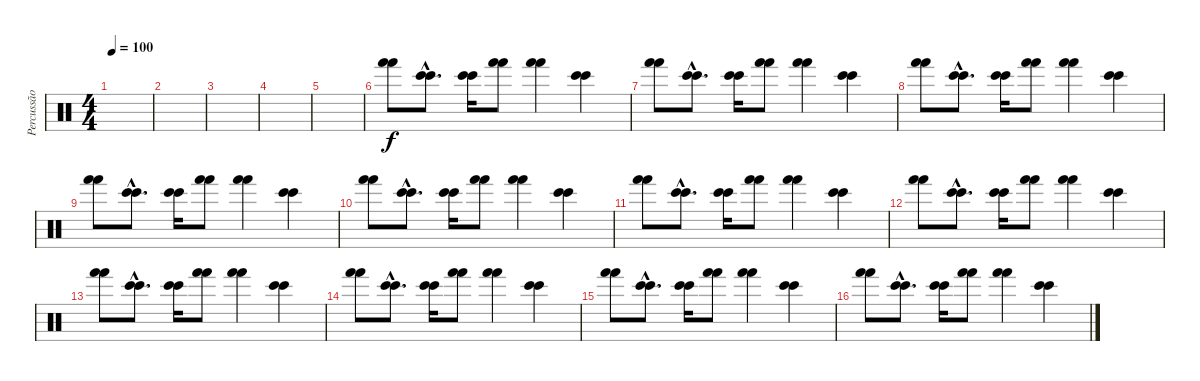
\track ("Percussão" "Percussão") {instrument percussion}
\staff {score}
\articulation defaults
\ts (4 4)
\tempo 100
\clef neutral
\ks c
|
|
|
|
|
("Hand (hit)" "Hand (hit)").8 ("Bongo High (hit)"{hac} "Bongo High (hit)"{hac}).8{d} ("Bongo High (hit)" "Bongo High (hit)").16 ("Hand (hit)" "Hand (hit)").8 ("Hand (hit)" "Hand (hit)").4 ("Bongo High (hit)" "Bongo High (hit)").4 |
("Hand (hit)" "Hand (hit)").8 ("Bongo High (hit)"{hac} "Bongo High (hit)"{hac}).8{d} ("Bongo High (hit)" "Bongo High (hit)").16 ("Hand (hit)" "Hand (hit)").8 ("Hand (hit)" "Hand (hit)").4 ("Bongo High (hit)" "Bongo High (hit)").4 |
("Hand (hit)" "Hand (hit)").8 ("Bongo High (hit)"{hac} "Bongo High (hit)"{hac}).8{d} ("Bongo High (hit)" "Bongo High (hit)").16 ("Hand (hit)" "Hand (hit)").8 ("Hand (hit)" "Hand (hit)").4 ("Bongo High (hit)" "Bongo High (hit)").4 |
("Hand (hit)" "Hand (hit)").8 ("Bongo High (hit)"{hac} "Bongo High (hit)"{hac}).8{d} ("Bongo High (hit)" "Bongo High (hit)").16 ("Hand (hit)" "Hand (hit)").8 ("Hand (hit)" "Hand (hit)").4 ("Bongo High (hit)" "Bongo High (hit)").4 |
("Hand (hit)" "Hand (hit)").8 ("Bongo High (hit)"{hac} "Bongo High (hit)"{hac}).8{d} ("Bongo High (hit)" "Bongo High (hit)").16 ("Hand (hit)" "Hand (hit)").8 ("Hand (hit)" "Hand (hit)").4 ("Bongo High (hit)" "Bongo High (hit)").4 |
("Hand (hit)" "Hand (hit)").8 ("Bongo High (hit)"{hac} "Bongo High (hit)"{hac}).8{d} ("Bongo High (hit)" "Bongo High (hit)").16 ("Hand (hit)" "Hand (hit)").8 ("Hand (hit)" "Hand (hit)").4 ("Bongo High (hit)" "Bongo High (hit)").4 |
("Hand (hit)" "Hand (hit)").8 ("Bongo High (hit)"{hac} "Bongo High (hit)"{hac}).8{d} ("Bongo High (hit)" "Bongo High (hit)").16 ("Hand (hit)" "Hand (hit)").8 ("Hand (hit)" "Hand (hit)").4 ("Bongo High (hit)" "Bongo High (hit)").4 |
("Hand (hit)" "Hand (hit)").8 ("Bongo High (hit)"{hac} "Bongo High (hit)"{hac}).8{d} ("Bongo High (hit)" "Bongo High (hit)").16 ("Hand (hit)" "Hand (hit)").8 ("Hand (hit)" "Hand (hit)").4 ("Bongo High (hit)" "Bongo High (hit)").4 |
("Hand (hit)" "Hand (hit)").8 ("Bongo High (hit)"{hac} "Bongo High (hit)"{hac}).8{d} ("Bongo High (hit)" "Bongo High (hit)").16 ("Hand (hit)" "Hand (hit)").8 ("Hand (hit)" "Hand (hit)").4 ("Bongo High (hit)" "Bongo High (hit)").4 |
("Hand (hit)" "Hand (hit)").8 ("Bongo High (hit)"{hac} "Bongo High (hit)"{hac}).8{d} ("Bongo High (hit)" "Bongo High (hit)").16 ("Hand (hit)" "Hand (hit)").8 ("Hand (hit)" "Hand (hit)").4 ("Bongo High (hit)" "Bongo High (hit)").4 |
("Hand (hit)" "Hand (hit)").8 ("Bongo High (hit)"{hac} "Bongo High (hit)"{hac}).8{d} ("Bongo High (hit)" "Bongo High (hit)").16 ("Hand (hit)" "Hand (hit)").8 ("Hand (hit)" "Hand (hit)").4 ("Bongo High (hit)" "Bongo High (hit)").4
